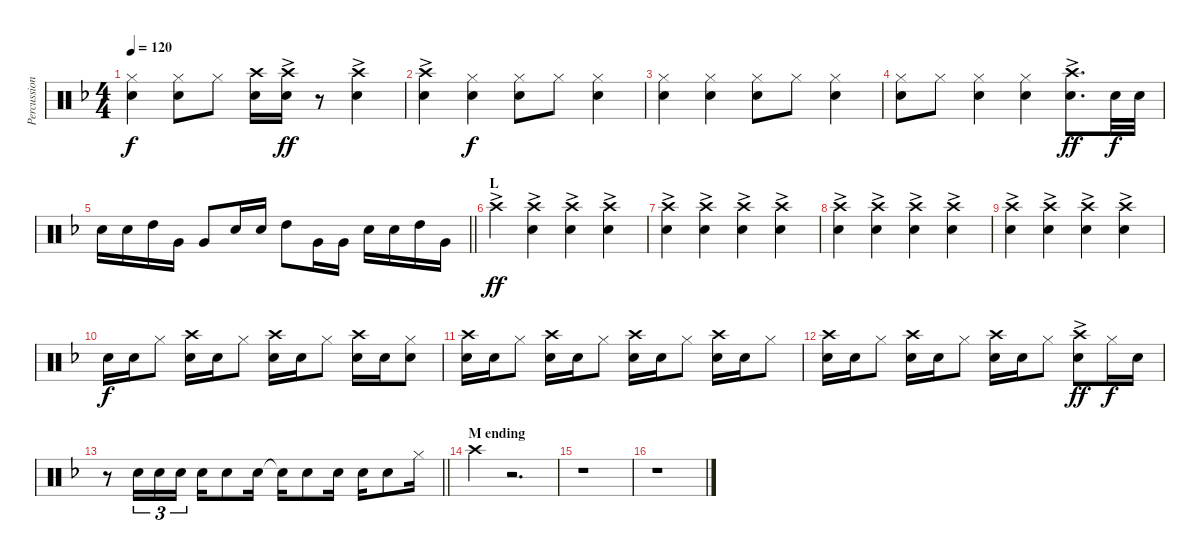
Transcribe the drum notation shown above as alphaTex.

\track ("Percussion hand" "Percussion") {instrument percussion}
\staff {score}
\articulation defaults
\ts (4 4)
\tempo 120
\clef neutral
\ks f
("Hi-Hat (closed)" "Snare (hit) 2").4{dy f} ("Hi-Hat (closed)" "Snare (hit) 2").8 "Hi-Hat (closed)".8 ("Crash high (hit)" "Snare (hit) 2").16 ("Crash high (hit)" "Snare (hit) 2"{ac}).16{dy ff} r.8 ("Crash high (hit)" "Snare (hit) 2"{ac}).4 |
("Crash high (hit)" "Snare (hit) 2"{ac}).4 ("Hi-Hat (closed)" "Snare (hit) 2").4{dy f} ("Hi-Hat (closed)" "Snare (hit) 2").8 "Hi-Hat (closed)".8 ("Hi-Hat (closed)" "Snare (hit) 2").4 |
("Hi-Hat (closed)" "Snare (hit) 2").4 ("Hi-Hat (closed)" "Snare (hit) 2").4 ("Hi-Hat (closed)" "Snare (hit) 2").8 "Hi-Hat (closed)".8 ("Hi-Hat (closed)" "Snare (hit) 2").4 |
("Hi-Hat (closed)" "Snare (hit) 2").8 "Hi-Hat (closed)".8 ("Hi-Hat (closed)" "Snare (hit) 2").4 ("Hi-Hat (closed)" "Snare (hit) 2").4 ("Crash high (hit)" "Snare (hit) 2"{ac}).8{d dy ff} "Snare (hit) 2".32{dy f} "Snare (hit) 2".32 |
\barLineRight lightlight "Snare (hit) 2".16 "Snare (hit) 2".16 "High Tom (hit)".16 "Very Low Tom (hit)".16 "Very Low Tom (hit)".8 "Snare (hit) 2".16 "Snare (hit) 2".16 "High Tom (hit)".8 "Very Low Tom (hit)".16 "Very Low Tom (hit)".16 "Snare (hit) 2".16 "Snare (hit) 2".16 "High Tom (hit)".16 "Very Low Tom (hit)".16
|
\section ("" "L")
"Crash high (hit)"{ac}.4{dy ff} ("Crash high (hit)" "Snare (hit) 2"{ac}).4 ("Crash high (hit)" "Snare (hit) 2"{ac}).4 ("Crash high (hit)" "Snare (hit) 2"{ac}).4 |
("Crash high (hit)" "Snare (hit) 2"{ac}).4 ("Crash high (hit)" "Snare (hit) 2"{ac}).4 ("Crash high (hit)" "Snare (hit) 2"{ac}).4 ("Crash high (hit)" "Snare (hit) 2"{ac}).4 |
("Crash high (hit)" "Snare (hit) 2"{ac}).4 ("Crash high (hit)" "Snare (hit) 2"{ac}).4 ("Crash high (hit)" "Snare (hit) 2"{ac}).4 ("Crash high (hit)" "Snare (hit) 2"{ac}).4 |
("Crash high (hit)" "Snare (hit) 2"{ac}).4 ("Crash high (hit)" "Snare (hit) 2"{ac}).4 ("Crash high (hit)" "Snare (hit) 2"{ac}).4 ("Crash high (hit)" "Snare (hit) 2"{ac}).4 |
"Snare (hit) 2".16{dy f} "Snare (hit) 2".16 "Hi-Hat (closed)".8 ("Crash high (hit)" "Snare (hit) 2").16 "Snare (hit) 2".16 "Hi-Hat (closed)".8 ("Crash high (hit)" "Snare (hit) 2").16 "Snare (hit) 2".16 "Hi-Hat (closed)".8 ("Crash high (hit)" "Snare (hit) 2").16 "Snare (hit) 2".16 ("Snare (hit) 2" "Hi-Hat (closed)").8 |
("Crash high (hit)" "Snare (hit) 2").16 "Snare (hit) 2".16 "Hi-Hat (closed)".8 ("Crash high (hit)" "Snare (hit) 2").16 "Snare (hit) 2".16 "Hi-Hat (closed)".8 ("Crash high (hit)" "Snare (hit) 2").16 "Snare (hit) 2".16 "Hi-Hat (closed)".8 ("Crash high (hit)" "Snare (hit) 2").16 "Snare (hit) 2".16 "Hi-Hat (closed)".8 |
("Crash high (hit)" "Snare (hit) 2").16 "Snare (hit) 2".16 "Hi-Hat (closed)".8 ("Crash high (hit)" "Snare (hit) 2").16 "Snare (hit) 2".16 "Hi-Hat (closed)".8 ("Crash high (hit)" "Snare (hit) 2").16 "Snare (hit) 2".16 "Hi-Hat (closed)".8 ("Crash high (hit)" "Snare (hit) 2"{ac}).8{dy ff} "Hi-Hat (closed)".16{dy f} "Snare (hit) 2".16 |
\barLineRight lightlight
r.8 "Snare (hit) 2".16{tu (3 2)} "Snare (hit) 2".16{tu (3 2)} "Snare (hit) 2".16{tu (3 2)} "Snare (hit) 2".16 "Snare (hit) 2".8 "Snare (hit) 2".16 "Snare (hit) 2"{t}.16 "Snare (hit) 2".8 "Snare (hit) 2".16 "Snare (hit) 2".16 "Snare (hit) 2".8 "Hi-Hat (closed)".16 |
\section ("" "M ending")
"Crash high (hit)".4 r.2{d} |
r.1 |
r.1
